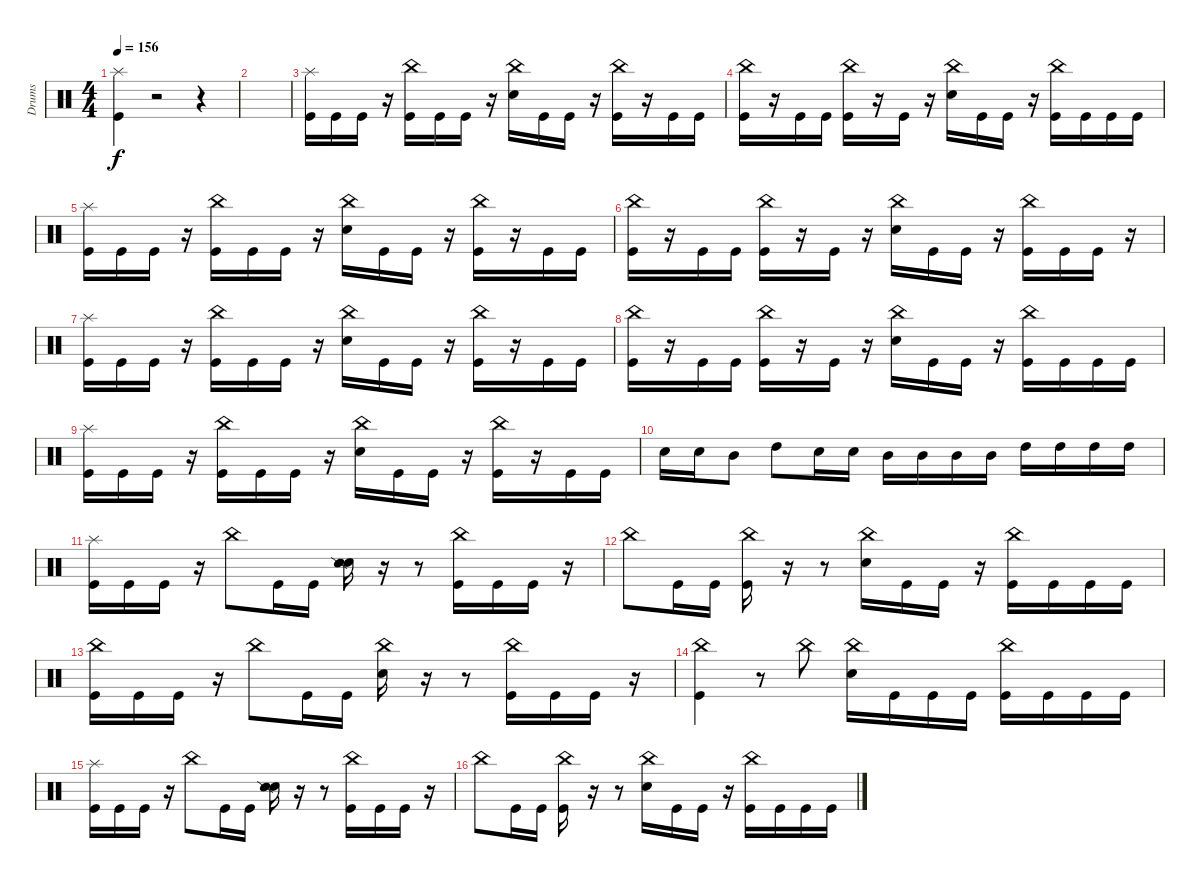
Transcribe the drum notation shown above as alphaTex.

\track ("Drums" "Drums") {instrument percussion}
\staff {score}
\articulation defaults
\ts (4 4)
\tempo 156
\clef neutral
\ks c
("Kick (hit)" "Splash (hit)").4{dy f} r.2 r.4 |
|
("Kick (hit)" "Splash (hit)").16 "Kick (hit)".16 "Kick (hit)".16 r.16 ("Kick (hit)" "China (hit)").16 "Kick (hit)".16 "Kick (hit)".16 r.16 ("Snare (hit) 2" "China (hit)").16 "Kick (hit)".16 "Kick (hit)".16 r.16 ("Kick (hit)" "China (hit)").16 r.16 "Kick (hit)".16 "Kick (hit)".16 |
("Kick (hit)" "China (hit)").16 r.16 "Kick (hit)".16 "Kick (hit)".16 ("China (hit)" "Kick (hit)").16 r.16 "Kick (hit)".16 r.16 ("Snare (hit) 2" "China (hit)").16 "Kick (hit)".16 "Kick (hit)".16 r.16 ("Kick (hit)" "China (hit)").16 "Kick (hit)".16 "Kick (hit)".16 "Kick (hit)".16 |
("Kick (hit)" "Splash (hit)").16 "Kick (hit)".16 "Kick (hit)".16 r.16 ("Kick (hit)" "China (hit)").16 "Kick (hit)".16 "Kick (hit)".16 r.16 ("Snare (hit) 2" "China (hit)").16 "Kick (hit)".16 "Kick (hit)".16 r.16 ("Kick (hit)" "China (hit)").16 r.16 "Kick (hit)".16 "Kick (hit)".16 |
("Kick (hit)" "China (hit)").16 r.16 "Kick (hit)".16 "Kick (hit)".16 ("Kick (hit)" "China (hit)").16 r.16 "Kick (hit)".16 r.16 ("Snare (hit) 2" "China (hit)").16 "Kick (hit)".16 "Kick (hit)".16 r.16 ("Kick (hit)" "China (hit)").16 "Kick (hit)".16 "Kick (hit)".16 r.16 |
("Kick (hit)" "Splash (hit)").16 "Kick (hit)".16 "Kick (hit)".16 r.16 ("Kick (hit)" "China (hit)").16 "Kick (hit)".16 "Kick (hit)".16 r.16 ("Snare (hit) 2" "China (hit)").16 "Kick (hit)".16 "Kick (hit)".16 r.16 ("Kick (hit)" "China (hit)").16 r.16 "Kick (hit)".16 "Kick (hit)".16 |
("Kick (hit)" "China (hit)").16 r.16 "Kick (hit)".16 "Kick (hit)".16 ("China (hit)" "Kick (hit)").16 r.16 "Kick (hit)".16 r.16 ("Snare (hit) 2" "China (hit)").16 "Kick (hit)".16 "Kick (hit)".16 r.16 ("Kick (hit)" "China (hit)").16 "Kick (hit)".16 "Kick (hit)".16 "Kick (hit)".16 |
("Kick (hit)" "Splash (hit)").16 "Kick (hit)".16 "Kick (hit)".16 r.16 ("Kick (hit)" "China (hit)").16 "Kick (hit)".16 "Kick (hit)".16 r.16 ("Snare (hit) 2" "China (hit)").16 "Kick (hit)".16 "Kick (hit)".16 r.16 ("Kick (hit)" "China (hit)").16 r.16 "Kick (hit)".16 "Kick (hit)".16 |
"Snare (hit) 2".16 "Snare (hit) 2".16 "Mid Tom (hit)".8 "High Tom (hit)".8 "Snare (hit) 2".16 "Snare (hit) 2".16 "Mid Tom (hit)".16 "Mid Tom (hit)".16 "Mid Tom (hit)".16 "Mid Tom (hit)".16 "High Tom (hit)".16 "High Tom (hit)".16 "High Tom (hit)".16 "High Tom (hit)".16 |
("Kick (hit)" "Splash (hit)").16 "Kick (hit)".16 "Kick (hit)".16 r.16 "China (hit)".8 "Kick (hit)".16 "Kick (hit)".16 ("Snare (hit) 2" "Snare (side stick) 2").16 r.16 r.8 ("Kick (hit)" "China (hit)").16 "Kick (hit)".16 "Kick (hit)".16 r.16 |
"China (hit)".8 "Kick (hit)".16 "Kick (hit)".16 ("Kick (hit)" "China (hit)").16 r.16 r.8 ("Snare (hit) 2" "China (hit)").16 "Kick (hit)".16 "Kick (hit)".16 r.16 ("Kick (hit)" "China (hit)").16 "Kick (hit)".16 "Kick (hit)".16 "Kick (hit)".16 |
("China (hit)" "Kick (hit)").16 "Kick (hit)".16 "Kick (hit)".16 r.16 "China (hit)".8 "Kick (hit)".16 "Kick (hit)".16 ("Snare (hit) 2" "China (hit)").16 r.16 r.8 ("Kick (hit)" "China (hit)").16 "Kick (hit)".16 "Kick (hit)".16 r.16 |
("Kick (hit)" "China (hit)").4 r.8 "China (hit)".8 ("Snare (hit) 2" "China (hit)").16 "Kick (hit)".16 "Kick (hit)".16 "Kick (hit)".16 ("China (hit)" "Kick (hit)").16 "Kick (hit)".16 "Kick (hit)".16 "Kick (hit)".16 |
("Kick (hit)" "Splash (hit)").16 "Kick (hit)".16 "Kick (hit)".16 r.16 "China (hit)".8 "Kick (hit)".16 "Kick (hit)".16 ("Snare (hit) 2" "Snare (side stick) 2").16 r.16 r.8 ("Kick (hit)" "China (hit)").16 "Kick (hit)".16 "Kick (hit)".16 r.16 |
"China (hit)".8 "Kick (hit)".16 "Kick (hit)".16 ("Kick (hit)" "China (hit)").16 r.16 r.8 ("Snare (hit) 2" "China (hit)").16 "Kick (hit)".16 "Kick (hit)".16 r.16 ("Kick (hit)" "China (hit)").16 "Kick (hit)".16 "Kick (hit)".16 "Kick (hit)".16
